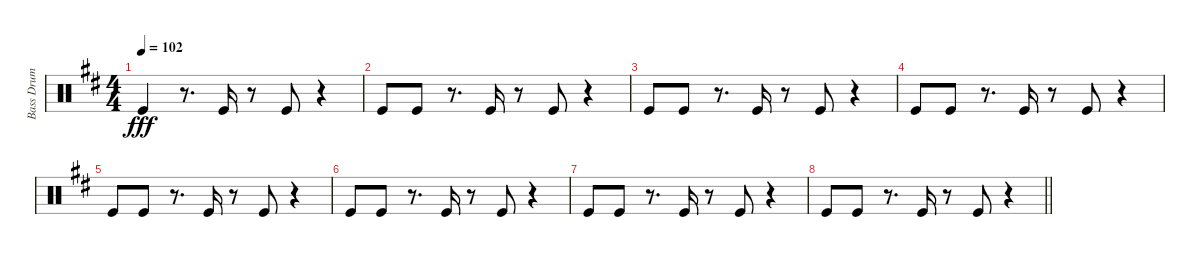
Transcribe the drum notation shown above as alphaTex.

\track ("Bass Drum" "Bass Drum") {instrument percussion}
\staff {score}
\articulation defaults
\ts (4 4)
\tempo 102
\clef neutral
\ks d "Kick (hit)".4{dy fff}
r.8{d} "Kick (hit)".16 r.8 "Kick (hit)".8 r.4 |
"Kick (hit)".8 "Kick (hit)".8 r.8{d} "Kick (hit)".16 r.8 "Kick (hit)".8 r.4 |
"Kick (hit)".8 "Kick (hit)".8 r.8{d} "Kick (hit)".16 r.8 "Kick (hit)".8 r.4 |
"Kick (hit)".8 "Kick (hit)".8 r.8{d} "Kick (hit)".16 r.8 "Kick (hit)".8 r.4 |
"Kick (hit)".8 "Kick (hit)".8 r.8{d} "Kick (hit)".16 r.8 "Kick (hit)".8 r.4 |
"Kick (hit)".8 "Kick (hit)".8 r.8{d} "Kick (hit)".16 r.8 "Kick (hit)".8 r.4 |
"Kick (hit)".8 "Kick (hit)".8 r.8{d} "Kick (hit)".16 r.8 "Kick (hit)".8 r.4 |
\barLineRight lightlight "Kick (hit)".8 "Kick (hit)".8
r.8{d} "Kick (hit)".16 r.8 "Kick (hit)".8 r.4
